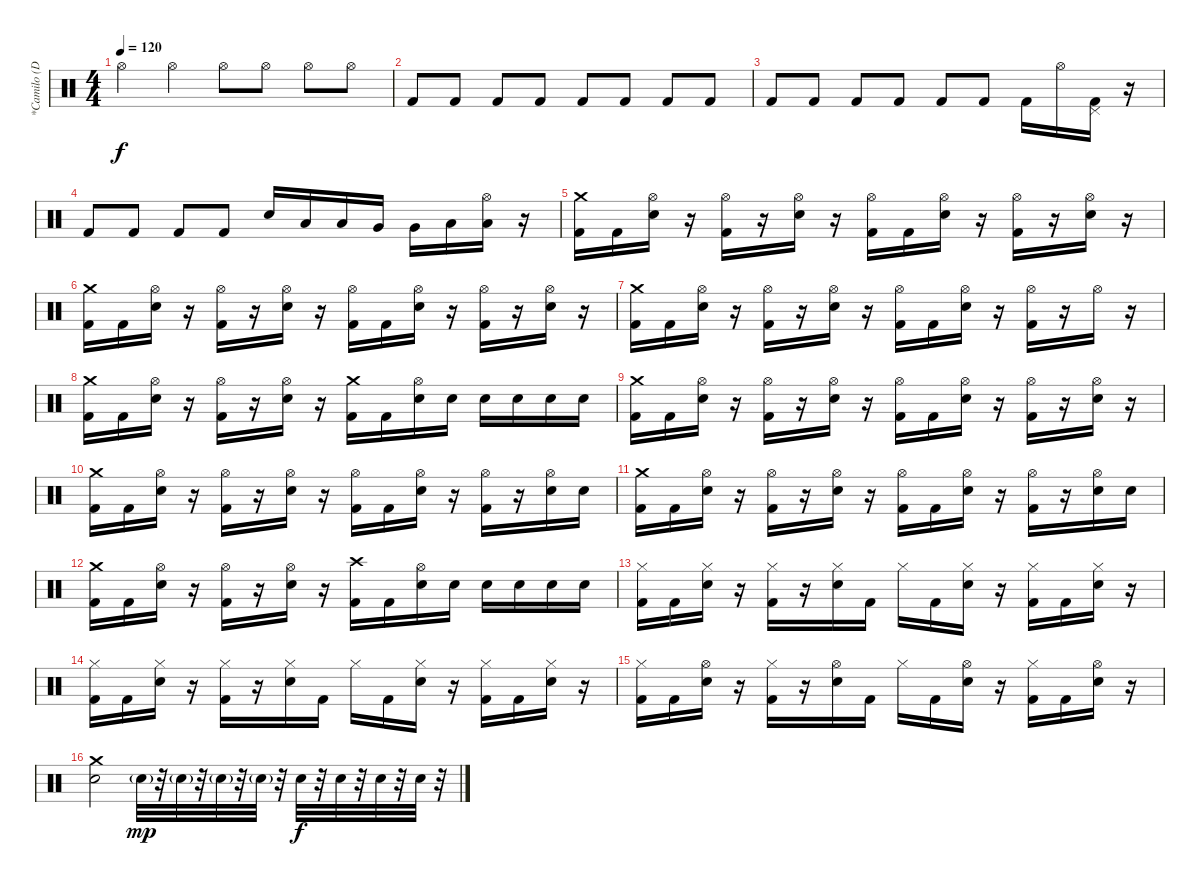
\track ("*Camilo (Drums)" "*Camilo (D") {instrument percussion}
\staff {score}
\articulation defaults
\ts (4 4)
\tempo 120
\clef neutral
\ks c "Hi-Hat (open)".4{dy f} "Hi-Hat (open)".4 "Hi-Hat (open)".8 "Hi-Hat (open)".8 "Hi-Hat (open)".8 "Hi-Hat (open)".8
|
"Kick (hit) 2".8 "Kick (hit) 2".8 "Kick (hit) 2".8 "Kick (hit) 2".8 "Kick (hit) 2".8 "Kick (hit) 2".8 "Kick (hit) 2".8 "Kick (hit) 2".8 |
"Kick (hit) 2".8 "Kick (hit) 2".8 "Kick (hit) 2".8 "Kick (hit) 2".8 "Kick (hit) 2".8 "Kick (hit) 2".8 "Kick (hit) 2".16 "Hi-Hat (open)".16 ("Pedal Hi-Hat (hit)" "Kick (hit) 2").16 r.16 |
"Kick (hit) 2".8 "Kick (hit) 2".8 "Kick (hit) 2".8 "Kick (hit) 2".8 "Electric Snare (hit)".16 "Low Tom (hit)".16 "Low Tom (hit)".16 "Very Low Tom (hit)".16 "Very Low Tom (hit)".16 "Low Floor Tom (hit)".16 ("Hi-Hat (open)" "Low Floor Tom (hit)").16 r.16 |
("Crash medium (hit)" "Kick (hit) 2").16 "Kick (hit) 2".16 ("Hi-Hat (open)" "Electric Snare (hit)").16 r.16 ("Hi-Hat (open)" "Kick (hit) 2").16 r.16 ("Hi-Hat (open)" "Electric Snare (hit)").16 r.16 ("Hi-Hat (open)" "Kick (hit) 2").16 "Kick (hit) 2".16 ("Hi-Hat (open)" "Electric Snare (hit)").16 r.16 ("Hi-Hat (open)" "Kick (hit) 2").16 r.16 ("Hi-Hat (open)" "Electric Snare (hit)").16 r.16 |
("Crash medium (hit)" "Kick (hit) 2").16 "Kick (hit) 2".16 ("Hi-Hat (open)" "Electric Snare (hit)").16 r.16 ("Hi-Hat (open)" "Kick (hit) 2").16 r.16 ("Hi-Hat (open)" "Electric Snare (hit)").16 r.16 ("Hi-Hat (open)" "Kick (hit) 2").16 "Kick (hit) 2".16 ("Hi-Hat (open)" "Electric Snare (hit)").16 r.16 ("Hi-Hat (open)" "Kick (hit) 2").16 r.16 ("Hi-Hat (open)" "Electric Snare (hit)").16 r.16 |
("Crash medium (hit)" "Kick (hit) 2").16 "Kick (hit) 2".16 ("Hi-Hat (open)" "Electric Snare (hit)").16 r.16 ("Hi-Hat (open)" "Kick (hit) 2").16 r.16 ("Hi-Hat (open)" "Electric Snare (hit)").16 r.16 ("Hi-Hat (open)" "Kick (hit) 2").16 "Kick (hit) 2".16 ("Hi-Hat (open)" "Electric Snare (hit)").16 r.16 ("Hi-Hat (open)" "Kick (hit) 2").16 r.16 "Hi-Hat (open)".16 r.16 |
("Crash medium (hit)" "Kick (hit) 2").16 "Kick (hit) 2".16 ("Hi-Hat (open)" "Electric Snare (hit)").16 r.16 ("Hi-Hat (open)" "Kick (hit) 2").16 r.16 ("Hi-Hat (open)" "Electric Snare (hit)").16 r.16 ("Crash medium (hit)" "Kick (hit) 2").16 "Kick (hit) 2".16 ("Hi-Hat (open)" "Electric Snare (hit)").16 "Electric Snare (hit)".16 "Electric Snare (hit)".16 "Electric Snare (hit)".16 "Electric Snare (hit)".16 "Electric Snare (hit)".16 |
("Crash medium (hit)" "Kick (hit) 2").16 "Kick (hit) 2".16 ("Hi-Hat (open)" "Electric Snare (hit)").16 r.16 ("Hi-Hat (open)" "Kick (hit) 2").16 r.16 ("Hi-Hat (open)" "Electric Snare (hit)").16 r.16 ("Hi-Hat (open)" "Kick (hit) 2").16 "Kick (hit) 2".16 ("Hi-Hat (open)" "Electric Snare (hit)").16 r.16 ("Hi-Hat (open)" "Kick (hit) 2").16 r.16 ("Hi-Hat (open)" "Electric Snare (hit)").16 r.16 |
("Crash medium (hit)" "Kick (hit) 2").16 "Kick (hit) 2".16 ("Hi-Hat (open)" "Electric Snare (hit)").16 r.16 ("Hi-Hat (open)" "Kick (hit) 2").16 r.16 ("Hi-Hat (open)" "Electric Snare (hit)").16 r.16 ("Hi-Hat (open)" "Kick (hit) 2").16 "Kick (hit) 2".16 ("Hi-Hat (open)" "Electric Snare (hit)").16 r.16 ("Hi-Hat (open)" "Kick (hit) 2").16 r.16 ("Hi-Hat (open)" "Electric Snare (hit)").16 "Electric Snare (hit)".16 |
("Crash medium (hit)" "Kick (hit) 2").16 "Kick (hit) 2".16 ("Hi-Hat (open)" "Electric Snare (hit)").16 r.16 ("Hi-Hat (open)" "Kick (hit) 2").16 r.16 ("Hi-Hat (open)" "Electric Snare (hit)").16 r.16 ("Hi-Hat (open)" "Kick (hit) 2").16 "Kick (hit) 2".16 ("Hi-Hat (open)" "Electric Snare (hit)").16 r.16 ("Hi-Hat (open)" "Kick (hit) 2").16 r.16 ("Hi-Hat (open)" "Electric Snare (hit)").16 "Electric Snare (hit)".16 |
("Crash medium (hit)" "Kick (hit) 2").16 "Kick (hit) 2".16 ("Hi-Hat (open)" "Electric Snare (hit)").16 r.16 ("Hi-Hat (open)" "Kick (hit) 2").16 r.16 ("Hi-Hat (open)" "Electric Snare (hit)").16 r.16 ("Crash high (hit)" "Kick (hit) 2").16 "Kick (hit) 2".16 ("Hi-Hat (open)" "Electric Snare (hit)").16 "Electric Snare (hit)".16 "Electric Snare (hit)".16 "Electric Snare (hit)".16 "Electric Snare (hit)".16 "Electric Snare (hit)".16 |
("Hi-Hat (closed)" "Kick (hit) 2").16 "Kick (hit) 2".16 ("Hi-Hat (closed)" "Electric Snare (hit)").16 r.16 ("Hi-Hat (closed)" "Kick (hit) 2").16 r.16 ("Hi-Hat (closed)" "Electric Snare (hit)").16 "Kick (hit) 2".16 "Hi-Hat (closed)".16 "Kick (hit) 2".16 ("Hi-Hat (closed)" "Electric Snare (hit)").16 r.16 ("Hi-Hat (closed)" "Kick (hit) 2").16 "Kick (hit) 2".16 ("Hi-Hat (closed)" "Electric Snare (hit)").16 r.16 |
("Hi-Hat (closed)" "Kick (hit) 2").16 "Kick (hit) 2".16 ("Hi-Hat (closed)" "Electric Snare (hit)").16 r.16 ("Hi-Hat (closed)" "Kick (hit) 2").16 r.16 ("Hi-Hat (closed)" "Electric Snare (hit)").16 "Kick (hit) 2".16 "Hi-Hat (closed)".16 "Kick (hit) 2".16 ("Hi-Hat (closed)" "Electric Snare (hit)").16 r.16 ("Hi-Hat (closed)" "Kick (hit) 2").16 "Kick (hit) 2".16 ("Hi-Hat (closed)" "Electric Snare (hit)").16 r.16 |
("Hi-Hat (closed)" "Kick (hit) 2").16 "Kick (hit) 2".16 ("Hi-Hat (open)" "Electric Snare (hit)").16 r.16 ("Hi-Hat (closed)" "Kick (hit) 2").16 r.16 ("Hi-Hat (open)" "Electric Snare (hit)").16 "Kick (hit) 2".16 "Hi-Hat (closed)".16 "Kick (hit) 2".16 ("Hi-Hat (open)" "Electric Snare (hit)").16 r.16 ("Hi-Hat (closed)" "Kick (hit) 2").16 "Kick (hit) 2".16 ("Hi-Hat (open)" "Electric Snare (hit)").16 r.16 |
("Crash medium (hit)" "Electric Snare (hit)").2 "Electric Snare (hit)"{g}.32{dy mp} r.32 "Electric Snare (hit)"{g}.32 r.32 "Electric Snare (hit)"{g}.32 r.32 "Electric Snare (hit)"{g}.32 r.32 "Electric Snare (hit)".32{dy f} r.32 "Electric Snare (hit)".32 r.32 "Electric Snare (hit)".32 r.32 "Electric Snare (hit)".32 r.32
